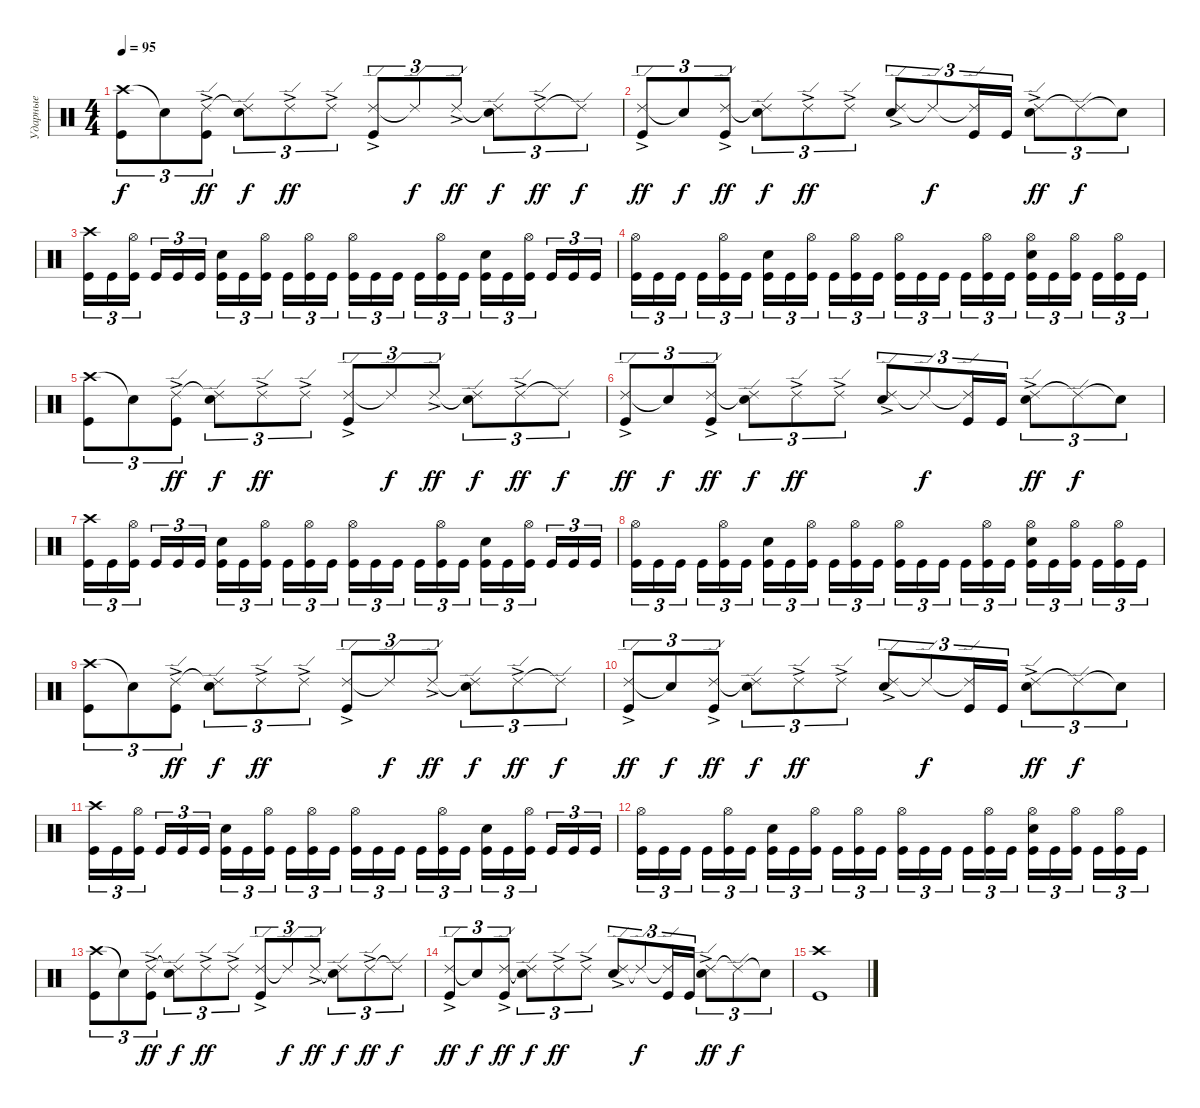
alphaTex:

\track ("Ударные" "Ударные") {instrument percussion}
\staff {score}
\articulation defaults
\ts (4 4)
\tempo 95
\clef neutral
\ks c
("Crash high (hit)" "Kick (hit)").8{tu (3 2) dy f} "Snare (hit)"{t}.8{tu (3 2)} ("Ride (edge) 2"{ac} "Kick (hit)").8{tu (3 2) dy ff} ("Ride (edge) 2"{t} "Snare (hit) 2").8{tu (3 2) dy f} "Ride (edge) 2"{ac}.8{tu (3 2) dy ff} "Ride (edge) 2"{ac}.8{tu (3 2)} ("Ride (edge) 2"{ac} "Kick (hit)").8{tu (3 2)} "Ride (edge) 2"{t}.8{tu (3 2) dy f} "Ride (edge) 2"{ac}.8{tu (3 2) dy ff} ("Ride (edge) 2"{t} "Snare (hit) 2").8{tu (3 2) dy f} "Ride (edge) 2"{ac}.8{tu (3 2) dy ff} "Ride (edge) 2"{t}.8{tu (3 2) dy f} |
("Ride (edge) 2"{ac} "Kick (hit)").8{tu (3 2) dy ff} "Snare (hit)"{t}.8{tu (3 2) dy f} ("Ride (edge) 2"{ac} "Kick (hit)").8{tu (3 2) dy ff} ("Ride (edge) 2"{t} "Snare (hit) 2").8{tu (3 2) dy f} "Ride (edge) 2"{ac}.8{tu (3 2) dy ff} "Ride (edge) 2"{ac}.8{tu (3 2)} ("Ride (edge) 2"{ac} "Snare (hit) 2").8{tu (3 2)} "Ride (edge) 2"{t}.8{tu (3 2) dy f} ("Ride (edge) 2"{t} "Kick (hit)").16{tu (3 2)} "Kick (hit)".16{tu (3 2)} ("Ride (edge) 2"{ac} "Snare (hit) 2").8{tu (3 2) dy ff} "Ride (edge) 2"{t}.8{tu (3 2) dy f} "Snare (hit)"{t}.8{tu (3 2)} |
("Crash high (hit)" "Kick (hit)").16{tu (3 2)} "Kick (hit)".16{tu (3 2)} ("Hi-Hat (open)" "Kick (hit)").16{tu (3 2) beam splitsecondary} "Kick (hit)".16{tu (3 2)} "Kick (hit)".16{tu (3 2)} "Kick (hit)".16{tu (3 2)} ("Snare (hit) 2" "Kick (hit)").16{tu (3 2)} "Kick (hit)".16{tu (3 2)} ("Hi-Hat (open)" "Kick (hit)").16{tu (3 2) beam splitsecondary} "Kick (hit)".16{tu (3 2)} ("Hi-Hat (open)" "Kick (hit)").16{tu (3 2)} "Kick (hit)".16{tu (3 2)} ("Hi-Hat (open)" "Kick (hit)").16{tu (3 2)} "Kick (hit)".16{tu (3 2)} "Kick (hit)".16{tu (3 2) beam splitsecondary} "Kick (hit)".16{tu (3 2)} ("Hi-Hat (open)" "Kick (hit)").16{tu (3 2)} "Kick (hit)".16{tu (3 2)} ("Snare (hit) 2" "Kick (hit)").16{tu (3 2)} "Kick (hit)".16{tu (3 2)} ("Hi-Hat (open)" "Kick (hit)").16{tu (3 2) beam splitsecondary} "Kick (hit)".16{tu (3 2)} "Kick (hit)".16{tu (3 2)} "Kick (hit)".16{tu (3 2)} |
("Hi-Hat (open)" "Kick (hit)").16{tu (3 2)} "Kick (hit)".16{tu (3 2)} "Kick (hit)".16{tu (3 2) beam splitsecondary} "Kick (hit)".16{tu (3 2)} ("Hi-Hat (open)" "Kick (hit)").16{tu (3 2)} "Kick (hit)".16{tu (3 2)} ("Snare (hit) 2" "Kick (hit)").16{tu (3 2)} "Kick (hit)".16{tu (3 2)} ("Hi-Hat (open)" "Kick (hit)").16{tu (3 2) beam splitsecondary} "Kick (hit)".16{tu (3 2)} ("Hi-Hat (open)" "Kick (hit)").16{tu (3 2)} "Kick (hit)".16{tu (3 2)} ("Hi-Hat (open)" "Kick (hit)").16{tu (3 2)} "Kick (hit)".16{tu (3 2)} "Kick (hit)".16{tu (3 2) beam splitsecondary} "Kick (hit)".16{tu (3 2)} ("Hi-Hat (open)" "Kick (hit)").16{tu (3 2)} "Kick (hit)".16{tu (3 2)} ("Hi-Hat (open)" "Snare (hit) 2" "Kick (hit)").16{tu (3 2)} "Kick (hit)".16{tu (3 2)} ("Hi-Hat (open)" "Kick (hit)").16{tu (3 2) beam splitsecondary} "Kick (hit)".16{tu (3 2)} ("Hi-Hat (open)" "Kick (hit)").16{tu (3 2)} "Kick (hit)".16{tu (3 2)} |
("Crash high (hit)" "Kick (hit)").8{tu (3 2)} "Snare (hit)"{t}.8{tu (3 2)} ("Ride (edge) 2"{ac} "Kick (hit)").8{tu (3 2) dy ff} ("Ride (edge) 2"{t} "Snare (hit) 2").8{tu (3 2) dy f} "Ride (edge) 2"{ac}.8{tu (3 2) dy ff} "Ride (edge) 2"{ac}.8{tu (3 2)} ("Ride (edge) 2"{ac} "Kick (hit)").8{tu (3 2)} "Ride (edge) 2"{t}.8{tu (3 2) dy f} "Ride (edge) 2"{ac}.8{tu (3 2) dy ff} ("Ride (edge) 2"{t} "Snare (hit) 2").8{tu (3 2) dy f} "Ride (edge) 2"{ac}.8{tu (3 2) dy ff} "Ride (edge) 2"{t}.8{tu (3 2) dy f} |
("Ride (edge) 2"{ac} "Kick (hit)").8{tu (3 2) dy ff} "Snare (hit)"{t}.8{tu (3 2) dy f} ("Ride (edge) 2"{ac} "Kick (hit)").8{tu (3 2) dy ff} ("Ride (edge) 2"{t} "Snare (hit) 2").8{tu (3 2) dy f} "Ride (edge) 2"{ac}.8{tu (3 2) dy ff} "Ride (edge) 2"{ac}.8{tu (3 2)} ("Ride (edge) 2"{ac} "Snare (hit) 2").8{tu (3 2)} "Ride (edge) 2"{t}.8{tu (3 2) dy f} ("Ride (edge) 2"{t} "Kick (hit)").16{tu (3 2)} "Kick (hit)".16{tu (3 2)} ("Ride (edge) 2"{ac} "Snare (hit) 2").8{tu (3 2) dy ff} "Ride (edge) 2"{t}.8{tu (3 2) dy f} "Snare (hit)"{t}.8{tu (3 2)} |
("Crash high (hit)" "Kick (hit)").16{tu (3 2)} "Kick (hit)".16{tu (3 2)} ("Hi-Hat (open)" "Kick (hit)").16{tu (3 2) beam splitsecondary} "Kick (hit)".16{tu (3 2)} "Kick (hit)".16{tu (3 2)} "Kick (hit)".16{tu (3 2)} ("Snare (hit) 2" "Kick (hit)").16{tu (3 2)} "Kick (hit)".16{tu (3 2)} ("Hi-Hat (open)" "Kick (hit)").16{tu (3 2) beam splitsecondary} "Kick (hit)".16{tu (3 2)} ("Hi-Hat (open)" "Kick (hit)").16{tu (3 2)} "Kick (hit)".16{tu (3 2)} ("Hi-Hat (open)" "Kick (hit)").16{tu (3 2)} "Kick (hit)".16{tu (3 2)} "Kick (hit)".16{tu (3 2) beam splitsecondary} "Kick (hit)".16{tu (3 2)} ("Hi-Hat (open)" "Kick (hit)").16{tu (3 2)} "Kick (hit)".16{tu (3 2)} ("Snare (hit) 2" "Kick (hit)").16{tu (3 2)} "Kick (hit)".16{tu (3 2)} ("Hi-Hat (open)" "Kick (hit)").16{tu (3 2) beam splitsecondary} "Kick (hit)".16{tu (3 2)} "Kick (hit)".16{tu (3 2)} "Kick (hit)".16{tu (3 2)} |
("Hi-Hat (open)" "Kick (hit)").16{tu (3 2)} "Kick (hit)".16{tu (3 2)} "Kick (hit)".16{tu (3 2) beam splitsecondary} "Kick (hit)".16{tu (3 2)} ("Hi-Hat (open)" "Kick (hit)").16{tu (3 2)} "Kick (hit)".16{tu (3 2)} ("Snare (hit) 2" "Kick (hit)").16{tu (3 2)} "Kick (hit)".16{tu (3 2)} ("Hi-Hat (open)" "Kick (hit)").16{tu (3 2) beam splitsecondary} "Kick (hit)".16{tu (3 2)} ("Hi-Hat (open)" "Kick (hit)").16{tu (3 2)} "Kick (hit)".16{tu (3 2)} ("Hi-Hat (open)" "Kick (hit)").16{tu (3 2)} "Kick (hit)".16{tu (3 2)} "Kick (hit)".16{tu (3 2) beam splitsecondary} "Kick (hit)".16{tu (3 2)} ("Hi-Hat (open)" "Kick (hit)").16{tu (3 2)} "Kick (hit)".16{tu (3 2)} ("Hi-Hat (open)" "Snare (hit) 2" "Kick (hit)").16{tu (3 2)} "Kick (hit)".16{tu (3 2)} ("Hi-Hat (open)" "Kick (hit)").16{tu (3 2) beam splitsecondary} "Kick (hit)".16{tu (3 2)} ("Hi-Hat (open)" "Kick (hit)").16{tu (3 2)} "Kick (hit)".16{tu (3 2)} |
("Crash high (hit)" "Kick (hit)").8{tu (3 2)} "Snare (hit)"{t}.8{tu (3 2)} ("Ride (edge) 2"{ac} "Kick (hit)").8{tu (3 2) dy ff} ("Ride (edge) 2"{t} "Snare (hit) 2").8{tu (3 2) dy f} "Ride (edge) 2"{ac}.8{tu (3 2) dy ff} "Ride (edge) 2"{ac}.8{tu (3 2)} ("Ride (edge) 2"{ac} "Kick (hit)").8{tu (3 2)} "Ride (edge) 2"{t}.8{tu (3 2) dy f} "Ride (edge) 2"{ac}.8{tu (3 2) dy ff} ("Ride (edge) 2"{t} "Snare (hit) 2").8{tu (3 2) dy f} "Ride (edge) 2"{ac}.8{tu (3 2) dy ff} "Ride (edge) 2"{t}.8{tu (3 2) dy f} |
("Ride (edge) 2"{ac} "Kick (hit)").8{tu (3 2) dy ff} "Snare (hit)"{t}.8{tu (3 2) dy f} ("Ride (edge) 2"{ac} "Kick (hit)").8{tu (3 2) dy ff} ("Ride (edge) 2"{t} "Snare (hit) 2").8{tu (3 2) dy f} "Ride (edge) 2"{ac}.8{tu (3 2) dy ff} "Ride (edge) 2"{ac}.8{tu (3 2)} ("Ride (edge) 2"{ac} "Snare (hit) 2").8{tu (3 2)} "Ride (edge) 2"{t}.8{tu (3 2) dy f} ("Ride (edge) 2"{t} "Kick (hit)").16{tu (3 2)} "Kick (hit)".16{tu (3 2)} ("Ride (edge) 2"{ac} "Snare (hit) 2").8{tu (3 2) dy ff} "Ride (edge) 2"{t}.8{tu (3 2) dy f} "Snare (hit)"{t}.8{tu (3 2)} |
("Crash high (hit)" "Kick (hit)").16{tu (3 2)} "Kick (hit)".16{tu (3 2)} ("Hi-Hat (open)" "Kick (hit)").16{tu (3 2) beam splitsecondary} "Kick (hit)".16{tu (3 2)} "Kick (hit)".16{tu (3 2)} "Kick (hit)".16{tu (3 2)} ("Snare (hit) 2" "Kick (hit)").16{tu (3 2)} "Kick (hit)".16{tu (3 2)} ("Hi-Hat (open)" "Kick (hit)").16{tu (3 2) beam splitsecondary} "Kick (hit)".16{tu (3 2)} ("Hi-Hat (open)" "Kick (hit)").16{tu (3 2)} "Kick (hit)".16{tu (3 2)} ("Hi-Hat (open)" "Kick (hit)").16{tu (3 2)} "Kick (hit)".16{tu (3 2)} "Kick (hit)".16{tu (3 2) beam splitsecondary} "Kick (hit)".16{tu (3 2)} ("Hi-Hat (open)" "Kick (hit)").16{tu (3 2)} "Kick (hit)".16{tu (3 2)} ("Snare (hit) 2" "Kick (hit)").16{tu (3 2)} "Kick (hit)".16{tu (3 2)} ("Hi-Hat (open)" "Kick (hit)").16{tu (3 2) beam splitsecondary} "Kick (hit)".16{tu (3 2)} "Kick (hit)".16{tu (3 2)} "Kick (hit)".16{tu (3 2)} |
("Hi-Hat (open)" "Kick (hit)").16{tu (3 2)} "Kick (hit)".16{tu (3 2)} "Kick (hit)".16{tu (3 2) beam splitsecondary} "Kick (hit)".16{tu (3 2)} ("Hi-Hat (open)" "Kick (hit)").16{tu (3 2)} "Kick (hit)".16{tu (3 2)} ("Snare (hit) 2" "Kick (hit)").16{tu (3 2)} "Kick (hit)".16{tu (3 2)} ("Hi-Hat (open)" "Kick (hit)").16{tu (3 2) beam splitsecondary} "Kick (hit)".16{tu (3 2)} ("Hi-Hat (open)" "Kick (hit)").16{tu (3 2)} "Kick (hit)".16{tu (3 2)} ("Hi-Hat (open)" "Kick (hit)").16{tu (3 2)} "Kick (hit)".16{tu (3 2)} "Kick (hit)".16{tu (3 2) beam splitsecondary} "Kick (hit)".16{tu (3 2)} ("Hi-Hat (open)" "Kick (hit)").16{tu (3 2)} "Kick (hit)".16{tu (3 2)} ("Hi-Hat (open)" "Snare (hit) 2" "Kick (hit)").16{tu (3 2)} "Kick (hit)".16{tu (3 2)} ("Hi-Hat (open)" "Kick (hit)").16{tu (3 2) beam splitsecondary} "Kick (hit)".16{tu (3 2)} ("Hi-Hat (open)" "Kick (hit)").16{tu (3 2)} "Kick (hit)".16{tu (3 2)} |
("Crash high (hit)" "Kick (hit)").8{tu (3 2)} "Snare (hit)"{t}.8{tu (3 2)} ("Ride (edge) 2"{ac} "Kick (hit)").8{tu (3 2) dy ff} ("Ride (edge) 2"{t} "Snare (hit) 2").8{tu (3 2) dy f} "Ride (edge) 2"{ac}.8{tu (3 2) dy ff} "Ride (edge) 2"{ac}.8{tu (3 2)} ("Ride (edge) 2"{ac} "Kick (hit)").8{tu (3 2)} "Ride (edge) 2"{t}.8{tu (3 2) dy f} "Ride (edge) 2"{ac}.8{tu (3 2) dy ff} ("Ride (edge) 2"{t} "Snare (hit) 2").8{tu (3 2) dy f} "Ride (edge) 2"{ac}.8{tu (3 2) dy ff} "Ride (edge) 2"{t}.8{tu (3 2) dy f} |
("Ride (edge) 2"{ac} "Kick (hit)").8{tu (3 2) dy ff} "Snare (hit)"{t}.8{tu (3 2) dy f} ("Ride (edge) 2"{ac} "Kick (hit)").8{tu (3 2) dy ff} ("Ride (edge) 2"{t} "Snare (hit) 2").8{tu (3 2) dy f} "Ride (edge) 2"{ac}.8{tu (3 2) dy ff} "Ride (edge) 2"{ac}.8{tu (3 2)} ("Ride (edge) 2"{ac} "Snare (hit) 2").8{tu (3 2)} "Ride (edge) 2"{t}.8{tu (3 2) dy f} ("Ride (edge) 2"{t} "Kick (hit)").16{tu (3 2)} "Kick (hit)".16{tu (3 2)} ("Ride (edge) 2"{ac} "Snare (hit) 2").8{tu (3 2) dy ff} "Ride (edge) 2"{t}.8{tu (3 2) dy f} "Snare (hit)"{t}.8{tu (3 2)} |
("Crash high (hit)" "Kick (hit)").1
